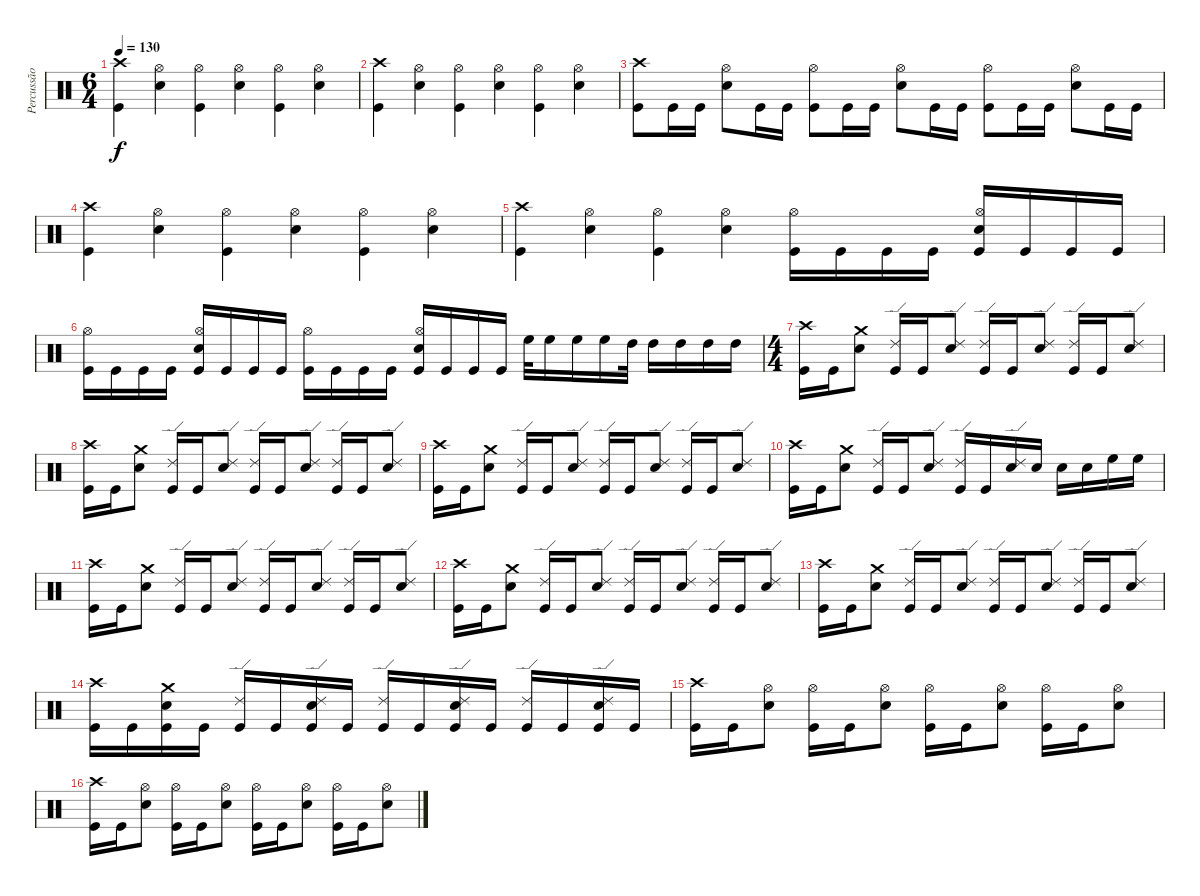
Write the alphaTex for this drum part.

\track ("Percussão" "Percussão") {instrument percussion}
\staff {score}
\articulation defaults
\ts (6 4)
\tempo 130
\clef neutral
\ks c
("Crash high (hit)" "Kick (hit)").4{dy f} ("Hi-Hat (open)" "Snare (hit) 2").4 ("Hi-Hat (open)" "Kick (hit)").4 ("Hi-Hat (open)" "Snare (hit) 2").4 ("Hi-Hat (open)" "Kick (hit)").4 ("Hi-Hat (open)" "Snare (hit) 2").4 |
("Crash high (hit)" "Kick (hit)").4 ("Hi-Hat (open)" "Snare (hit) 2").4 ("Hi-Hat (open)" "Kick (hit)").4 ("Hi-Hat (open)" "Snare (hit) 2").4 ("Hi-Hat (open)" "Kick (hit)").4 ("Hi-Hat (open)" "Snare (hit) 2").4 |
("Crash high (hit)" "Kick (hit)").8 "Kick (hit)".16 "Kick (hit)".16 ("Hi-Hat (open)" "Snare (hit) 2").8 "Kick (hit)".16 "Kick (hit)".16 ("Hi-Hat (open)" "Kick (hit)").8 "Kick (hit)".16 "Kick (hit)".16 ("Hi-Hat (open)" "Snare (hit) 2").8 "Kick (hit)".16 "Kick (hit)".16 ("Hi-Hat (open)" "Kick (hit)").8 "Kick (hit)".16 "Kick (hit)".16 ("Hi-Hat (open)" "Snare (hit) 2").8 "Kick (hit)".16 "Kick (hit)".16 |
("Crash high (hit)" "Kick (hit)").4 ("Hi-Hat (open)" "Snare (hit) 2").4 ("Hi-Hat (open)" "Kick (hit)").4 ("Hi-Hat (open)" "Snare (hit) 2").4 ("Hi-Hat (open)" "Kick (hit)").4 ("Hi-Hat (open)" "Snare (hit) 2").4 |
("Crash high (hit)" "Kick (hit)").4 ("Hi-Hat (open)" "Snare (hit) 2").4 ("Hi-Hat (open)" "Kick (hit)").4 ("Hi-Hat (open)" "Snare (hit) 2").4 ("Hi-Hat (open)" "Kick (hit)").16 "Kick (hit)".16 "Kick (hit)".16 "Kick (hit)".16 ("Hi-Hat (open)" "Snare (hit) 2" "Kick (hit)").16 "Kick (hit)".16 "Kick (hit)".16 "Kick (hit)".16 |
("Hi-Hat (open)" "Kick (hit)").16 "Kick (hit)".16 "Kick (hit)".16 "Kick (hit)".16 ("Hi-Hat (open)" "Snare (hit) 2" "Kick (hit)").16 "Kick (hit)".16 "Kick (hit)".16 "Kick (hit)".16 ("Hi-Hat (open)" "Kick (hit)").16 "Kick (hit)".16 "Kick (hit)".16 "Kick (hit)".16 ("Hi-Hat (open)" "Snare (hit) 2" "Kick (hit)").16 "Kick (hit)".16 "Kick (hit)".16 "Kick (hit)".16 "High Floor Tom (hit)".32 "High Floor Tom (hit)".16 "High Floor Tom (hit)".16 "High Floor Tom (hit)".16 "High Tom (hit)".32 "High Tom (hit)".16 "High Tom (hit)".16 "High Tom (hit)".16 "High Tom (hit)".16 |
\ts (4 4)
("Crash high (hit)" "Kick (hit)").16 "Kick (hit)".16 ("Crash medium (hit)" "Snare (hit) 2").8 ("Ride (edge) 2" "Kick (hit)").16 "Kick (hit)".16 ("Ride (edge) 2" "Snare (hit) 2").8 ("Ride (edge) 2" "Kick (hit)").16 "Kick (hit)".16 ("Ride (edge) 2" "Snare (hit) 2").8 ("Ride (edge) 2" "Kick (hit)").16 "Kick (hit)".16 ("Ride (edge) 2" "Snare (hit) 2").8 |
("Crash high (hit)" "Kick (hit)").16 "Kick (hit)".16 ("Crash medium (hit)" "Snare (hit) 2").8 ("Ride (edge) 2" "Kick (hit)").16 "Kick (hit)".16 ("Ride (edge) 2" "Snare (hit) 2").8 ("Ride (edge) 2" "Kick (hit)").16 "Kick (hit)".16 ("Ride (edge) 2" "Snare (hit) 2").8 ("Ride (edge) 2" "Kick (hit)").16 "Kick (hit)".16 ("Ride (edge) 2" "Snare (hit) 2").8 |
("Crash high (hit)" "Kick (hit)").16 "Kick (hit)".16 ("Crash medium (hit)" "Snare (hit) 2").8 ("Ride (edge) 2" "Kick (hit)").16 "Kick (hit)".16 ("Ride (edge) 2" "Snare (hit) 2").8 ("Ride (edge) 2" "Kick (hit)").16 "Kick (hit)".16 ("Ride (edge) 2" "Snare (hit) 2").8 ("Ride (edge) 2" "Kick (hit)").16 "Kick (hit)".16 ("Ride (edge) 2" "Snare (hit) 2").8 |
("Crash high (hit)" "Kick (hit)").16 "Kick (hit)".16 ("Crash medium (hit)" "Snare (hit) 2").8 ("Ride (edge) 2" "Kick (hit)").16 "Kick (hit)".16 ("Ride (edge) 2" "Snare (hit) 2").8 ("Ride (edge) 2" "Kick (hit)").16 "Kick (hit)".16 ("Ride (edge) 2" "Snare (hit) 2").16 "Snare (hit) 2".16 "Snare (hit) 2".16 "Snare (hit) 2".16 "High Floor Tom (hit)".16 "High Floor Tom (hit)".16 |
("Crash high (hit)" "Kick (hit)").16 "Kick (hit)".16 ("Crash medium (hit)" "Snare (hit) 2").8 ("Ride (edge) 2" "Kick (hit)").16 "Kick (hit)".16 ("Ride (edge) 2" "Snare (hit) 2").8 ("Ride (edge) 2" "Kick (hit)").16 "Kick (hit)".16 ("Ride (edge) 2" "Snare (hit) 2").8 ("Ride (edge) 2" "Kick (hit)").16 "Kick (hit)".16 ("Ride (edge) 2" "Snare (hit) 2").8 |
("Crash high (hit)" "Kick (hit)").16 "Kick (hit)".16 ("Crash medium (hit)" "Snare (hit) 2").8 ("Ride (edge) 2" "Kick (hit)").16 "Kick (hit)".16 ("Ride (edge) 2" "Snare (hit) 2").8 ("Ride (edge) 2" "Kick (hit)").16 "Kick (hit)".16 ("Ride (edge) 2" "Snare (hit) 2").8 ("Ride (edge) 2" "Kick (hit)").16 "Kick (hit)".16 ("Ride (edge) 2" "Snare (hit) 2").8 |
("Crash high (hit)" "Kick (hit)").16 "Kick (hit)".16 ("Crash medium (hit)" "Snare (hit) 2").8 ("Ride (edge) 2" "Kick (hit)").16 "Kick (hit)".16 ("Ride (edge) 2" "Snare (hit) 2").8 ("Ride (edge) 2" "Kick (hit)").16 "Kick (hit)".16 ("Ride (edge) 2" "Snare (hit) 2").8 ("Ride (edge) 2" "Kick (hit)").16 "Kick (hit)".16 ("Ride (edge) 2" "Snare (hit) 2").8 |
("Crash high (hit)" "Kick (hit)").16 "Kick (hit)".16 ("Crash medium (hit)" "Snare (hit) 2" "Kick (hit)").16 "Kick (hit)".16 ("Ride (edge) 2" "Kick (hit)").16 "Kick (hit)".16 ("Ride (edge) 2" "Snare (hit) 2" "Kick (hit)").16 "Kick (hit)".16 ("Ride (edge) 2" "Kick (hit)").16 "Kick (hit)".16 ("Ride (edge) 2" "Snare (hit) 2" "Kick (hit)").16 "Kick (hit)".16 ("Ride (edge) 2" "Kick (hit)").16 "Kick (hit)".16 ("Ride (edge) 2" "Snare (hit) 2" "Kick (hit)").16 "Kick (hit)".16 |
("Crash high (hit)" "Kick (hit)").16 "Kick (hit)".16 ("Hi-Hat (open)" "Snare (hit) 2").8 ("Hi-Hat (open)" "Kick (hit)").16 "Kick (hit)".16 ("Hi-Hat (open)" "Snare (hit) 2").8 ("Hi-Hat (open)" "Kick (hit)").16 "Kick (hit)".16 ("Hi-Hat (open)" "Snare (hit) 2").8 ("Hi-Hat (open)" "Kick (hit)").16 "Kick (hit)".16 ("Hi-Hat (open)" "Snare (hit) 2").8 |
("Crash high (hit)" "Kick (hit)").16 "Kick (hit)".16 ("Hi-Hat (open)" "Snare (hit) 2").8 ("Hi-Hat (open)" "Kick (hit)").16 "Kick (hit)".16 ("Hi-Hat (open)" "Snare (hit) 2").8 ("Hi-Hat (open)" "Kick (hit)").16 "Kick (hit)".16 ("Hi-Hat (open)" "Snare (hit) 2").8 ("Hi-Hat (open)" "Kick (hit)").16 "Kick (hit)".16 ("Hi-Hat (open)" "Snare (hit) 2").8
